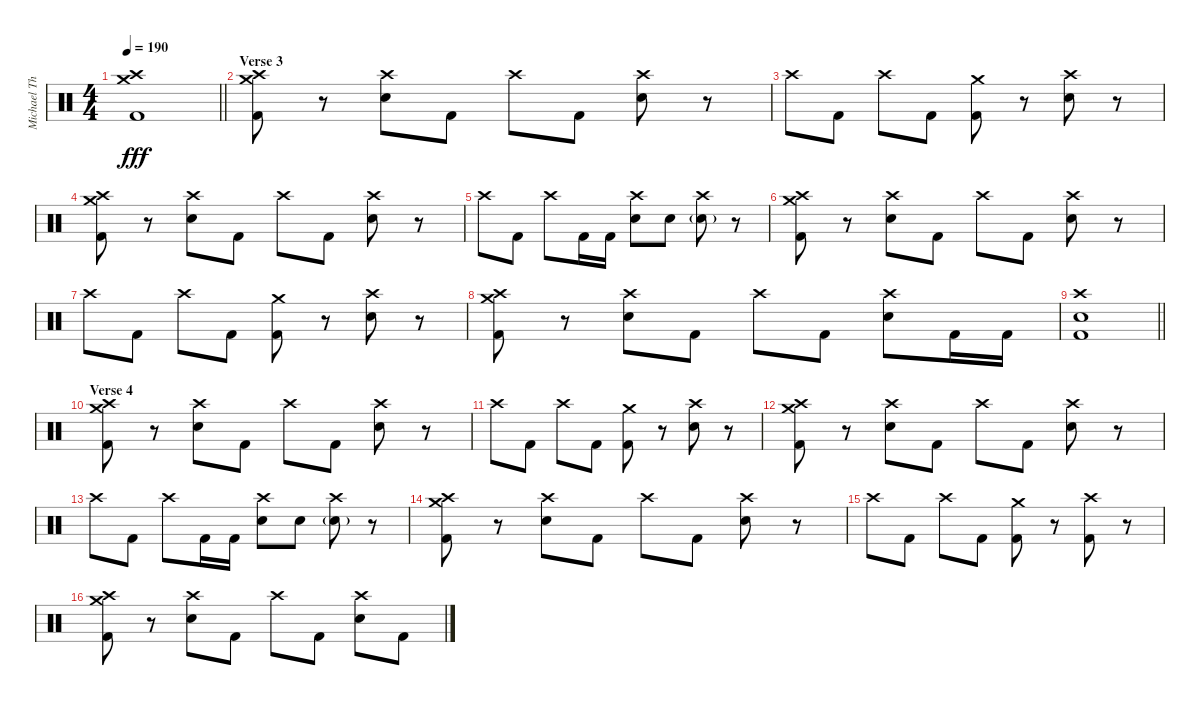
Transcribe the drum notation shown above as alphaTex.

\track ("Michael Thomas Жжёт!" "Michael Th") {instrument percussion}
\staff {score}
\articulation defaults
\ts (4 4)
\tempo 190
\clef neutral
\barLineRight lightlight
\ks c
("Crash high (hit)" "Crash medium (hit)" "Kick (hit) 2").1{dy fff} |
\section ("" "Verse 3")
("Crash high (hit)" "Crash medium (hit)" "Kick (hit) 2").8 r.8 ("Crash high (hit)" "Electric Snare (hit)").8 "Kick (hit) 2".8 "Crash high (hit)".8 "Kick (hit) 2".8 ("Crash high (hit)" "Electric Snare (hit)").8 r.8 |
"Crash high (hit)".8 "Kick (hit) 2".8 "Crash high (hit)".8 "Kick (hit) 2".8 ("Crash medium (hit)" "Kick (hit) 2").8 r.8 ("Crash high (hit)" "Electric Snare (hit)").8 r.8 |
("Crash high (hit)" "Crash medium (hit)" "Kick (hit) 2").8 r.8 ("Crash high (hit)" "Electric Snare (hit)").8 "Kick (hit) 2".8 "Crash high (hit)".8 "Kick (hit) 2".8 ("Crash high (hit)" "Electric Snare (hit)").8 r.8 |
"Crash high (hit)".8 "Kick (hit) 2".8 "Crash high (hit)".8 "Kick (hit) 2".16 "Kick (hit) 2".16 ("Crash high (hit)" "Electric Snare (hit)").8 "Electric Snare (hit)".8 ("Crash high (hit)" "Electric Snare (hit)"{g}).8 r.8 |
("Crash high (hit)" "Crash medium (hit)" "Kick (hit) 2").8 r.8 ("Crash high (hit)" "Electric Snare (hit)").8 "Kick (hit) 2".8 "Crash high (hit)".8 "Kick (hit) 2".8 ("Crash high (hit)" "Electric Snare (hit)").8 r.8 |
"Crash high (hit)".8 "Kick (hit) 2".8 "Crash high (hit)".8 "Kick (hit) 2".8 ("Crash medium (hit)" "Kick (hit) 2").8 r.8 ("Crash high (hit)" "Electric Snare (hit)").8 r.8 |
("Crash high (hit)" "Crash medium (hit)" "Kick (hit) 2").8 r.8 ("Crash high (hit)" "Electric Snare (hit)").8 "Kick (hit) 2".8 "Crash high (hit)".8 "Kick (hit) 2".8 ("Crash high (hit)" "Electric Snare (hit)").8 "Kick (hit) 2".16 "Kick (hit) 2".16 |
\barLineRight lightlight
("Crash high (hit)" "Electric Snare (hit)" "Kick (hit) 2").1 |
\section ("" "Verse 4")
("Crash high (hit)" "Crash medium (hit)" "Kick (hit) 2").8 r.8 ("Crash high (hit)" "Electric Snare (hit)").8 "Kick (hit) 2".8 "Crash high (hit)".8 "Kick (hit) 2".8 ("Crash high (hit)" "Electric Snare (hit)").8 r.8 |
"Crash high (hit)".8 "Kick (hit) 2".8 "Crash high (hit)".8 "Kick (hit) 2".8 ("Crash medium (hit)" "Kick (hit) 2").8 r.8 ("Crash high (hit)" "Electric Snare (hit)").8 r.8 |
("Crash high (hit)" "Crash medium (hit)" "Kick (hit) 2").8 r.8 ("Crash high (hit)" "Electric Snare (hit)").8 "Kick (hit) 2".8 "Crash high (hit)".8 "Kick (hit) 2".8 ("Crash high (hit)" "Electric Snare (hit)").8 r.8 |
"Crash high (hit)".8 "Kick (hit) 2".8 "Crash high (hit)".8 "Kick (hit) 2".16 "Kick (hit) 2".16 ("Crash high (hit)" "Electric Snare (hit)").8 "Electric Snare (hit)".8 ("Crash high (hit)" "Electric Snare (hit)"{g}).8 r.8 |
("Crash high (hit)" "Crash medium (hit)" "Kick (hit) 2").8 r.8 ("Crash high (hit)" "Electric Snare (hit)").8 "Kick (hit) 2".8 "Crash high (hit)".8 "Kick (hit) 2".8 ("Crash high (hit)" "Electric Snare (hit)").8 r.8 |
"Crash high (hit)".8 "Kick (hit) 2".8 "Crash high (hit)".8 "Kick (hit) 2".8 ("Crash medium (hit)" "Kick (hit) 2").8 r.8 ("Crash high (hit)" "Kick (hit) 2").8 r.8 |
("Crash high (hit)" "Crash medium (hit)" "Kick (hit) 2").8 r.8 ("Crash high (hit)" "Electric Snare (hit)").8 "Kick (hit) 2".8 "Crash high (hit)".8 "Kick (hit) 2".8 ("Crash high (hit)" "Electric Snare (hit)").8 "Kick (hit) 2".8
